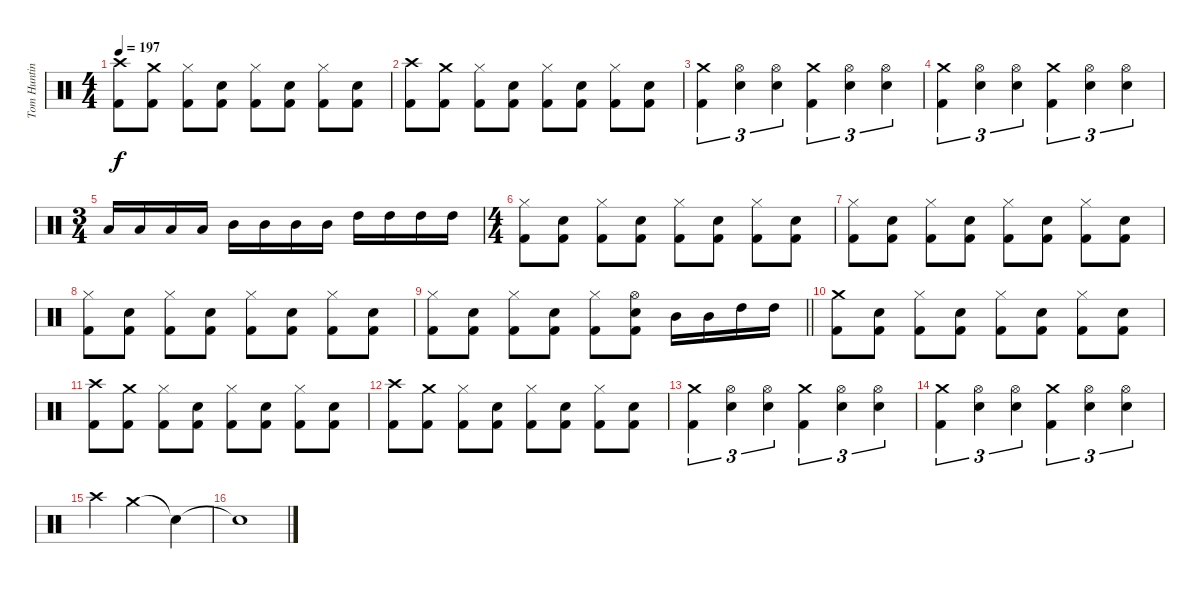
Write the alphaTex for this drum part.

\track ("Tom Hunting" "Tom Huntin") {instrument percussion}
\staff {score}
\articulation defaults
\ts (4 4)
\tempo 197
\clef neutral
\ks c
("Crash high (hit)" "Kick (hit) 2").8{dy f} ("Crash medium (hit)" "Kick (hit) 2").8 ("Hi-Hat (closed)" "Kick (hit) 2").8 ("Snare (hit) 2" "Kick (hit) 2").8 ("Hi-Hat (closed)" "Kick (hit) 2").8 ("Snare (hit) 2" "Kick (hit) 2").8 ("Hi-Hat (closed)" "Kick (hit) 2").8 ("Snare (hit) 2" "Kick (hit) 2").8 |
("Crash high (hit)" "Kick (hit) 2").8 ("Crash medium (hit)" "Kick (hit) 2").8 ("Hi-Hat (closed)" "Kick (hit) 2").8 ("Snare (hit) 2" "Kick (hit) 2").8 ("Hi-Hat (closed)" "Kick (hit) 2").8 ("Snare (hit) 2" "Kick (hit) 2").8 ("Hi-Hat (closed)" "Kick (hit) 2").8 ("Snare (hit) 2" "Kick (hit) 2").8 |
("Crash medium (hit)" "Kick (hit) 2").4{tu (3 2)} ("Hi-Hat (open)" "Snare (hit) 2").4{tu (3 2)} ("Hi-Hat (open)" "Snare (hit) 2").4{tu (3 2)} ("Crash medium (hit)" "Kick (hit) 2").4{tu (3 2)} ("Hi-Hat (open)" "Snare (hit) 2").4{tu (3 2)} ("Hi-Hat (open)" "Snare (hit) 2").4{tu (3 2)} |
("Crash medium (hit)" "Kick (hit) 2").4{tu (3 2)} ("Hi-Hat (open)" "Snare (hit) 2").4{tu (3 2)} ("Hi-Hat (open)" "Snare (hit) 2").4{tu (3 2)} ("Crash medium (hit)" "Kick (hit) 2").4{tu (3 2)} ("Hi-Hat (open)" "Snare (hit) 2").4{tu (3 2)} ("Hi-Hat (open)" "Snare (hit) 2").4{tu (3 2)} |
\ts (3 4)
"Low Tom (hit)".16 "Low Tom (hit)".16 "Low Tom (hit)".16 "Low Tom (hit)".16 "Mid Tom (hit)".16 "Mid Tom (hit)".16 "Mid Tom (hit)".16 "Mid Tom (hit)".16 "High Tom (hit)".16 "High Tom (hit)".16 "High Tom (hit)".16 "High Tom (hit)".16 |
\ts (4 4)
("Hi-Hat (closed)" "Kick (hit) 2").8 ("Snare (hit) 2" "Kick (hit) 2").8 ("Hi-Hat (closed)" "Kick (hit) 2").8 ("Snare (hit) 2" "Kick (hit) 2").8 ("Hi-Hat (closed)" "Kick (hit) 2").8 ("Snare (hit) 2" "Kick (hit) 2").8 ("Hi-Hat (closed)" "Kick (hit) 2").8 ("Snare (hit) 2" "Kick (hit) 2").8 |
("Hi-Hat (closed)" "Kick (hit) 2").8 ("Snare (hit) 2" "Kick (hit) 2").8 ("Hi-Hat (closed)" "Kick (hit) 2").8 ("Snare (hit) 2" "Kick (hit) 2").8 ("Hi-Hat (closed)" "Kick (hit) 2").8 ("Snare (hit) 2" "Kick (hit) 2").8 ("Hi-Hat (closed)" "Kick (hit) 2").8 ("Snare (hit) 2" "Kick (hit) 2").8 |
("Hi-Hat (closed)" "Kick (hit) 2").8 ("Snare (hit) 2" "Kick (hit) 2").8 ("Hi-Hat (closed)" "Kick (hit) 2").8 ("Snare (hit) 2" "Kick (hit) 2").8 ("Hi-Hat (closed)" "Kick (hit) 2").8 ("Snare (hit) 2" "Kick (hit) 2").8 ("Hi-Hat (closed)" "Kick (hit) 2").8 ("Snare (hit) 2" "Kick (hit) 2").8 |
\barLineRight lightlight
("Hi-Hat (closed)" "Kick (hit) 2").8 ("Snare (hit) 2" "Kick (hit) 2").8 ("Hi-Hat (closed)" "Kick (hit) 2").8 ("Snare (hit) 2" "Kick (hit) 2").8 ("Hi-Hat (closed)" "Kick (hit) 2").8 ("Hi-Hat (open)" "Snare (hit) 2" "Kick (hit) 2").8 "Mid Tom (hit)".16 "Mid Tom (hit)".16 "High Tom (hit)".16 "High Tom (hit)".16 |
("Crash medium (hit)" "Kick (hit) 2").8 ("Snare (hit) 2" "Kick (hit) 2").8 ("Hi-Hat (closed)" "Kick (hit) 2").8 ("Snare (hit) 2" "Kick (hit) 2").8 ("Hi-Hat (closed)" "Kick (hit) 2").8 ("Snare (hit) 2" "Kick (hit) 2").8 ("Hi-Hat (closed)" "Kick (hit) 2").8 ("Snare (hit) 2" "Kick (hit) 2").8 |
("Crash high (hit)" "Kick (hit) 2").8 ("Crash medium (hit)" "Kick (hit) 2").8 ("Hi-Hat (closed)" "Kick (hit) 2").8 ("Snare (hit) 2" "Kick (hit) 2").8 ("Hi-Hat (closed)" "Kick (hit) 2").8 ("Snare (hit) 2" "Kick (hit) 2").8 ("Hi-Hat (closed)" "Kick (hit) 2").8 ("Snare (hit) 2" "Kick (hit) 2").8 |
("Crash high (hit)" "Kick (hit) 2").8 ("Crash medium (hit)" "Kick (hit) 2").8 ("Hi-Hat (closed)" "Kick (hit) 2").8 ("Snare (hit) 2" "Kick (hit) 2").8 ("Hi-Hat (closed)" "Kick (hit) 2").8 ("Snare (hit) 2" "Kick (hit) 2").8 ("Hi-Hat (closed)" "Kick (hit) 2").8 ("Snare (hit) 2" "Kick (hit) 2").8 |
("Crash medium (hit)" "Kick (hit) 2").4{tu (3 2)} ("Hi-Hat (open)" "Snare (hit) 2").4{tu (3 2)} ("Hi-Hat (open)" "Snare (hit) 2").4{tu (3 2)} ("Crash medium (hit)" "Kick (hit) 2").4{tu (3 2)} ("Hi-Hat (open)" "Snare (hit) 2").4{tu (3 2)} ("Hi-Hat (open)" "Snare (hit) 2").4{tu (3 2)} |
("Crash medium (hit)" "Kick (hit) 2").4{tu (3 2)} ("Hi-Hat (open)" "Snare (hit) 2").4{tu (3 2)} ("Hi-Hat (open)" "Snare (hit) 2").4{tu (3 2)} ("Crash medium (hit)" "Kick (hit) 2").4{tu (3 2)} ("Hi-Hat (open)" "Snare (hit) 2").4{tu (3 2)} ("Hi-Hat (open)" "Snare (hit) 2").4{tu (3 2)} |
"Crash high (hit)".4 "Crash medium (hit)".2 "Snare (hit)"{t}.4 |
"Snare (hit)"{t}.1
